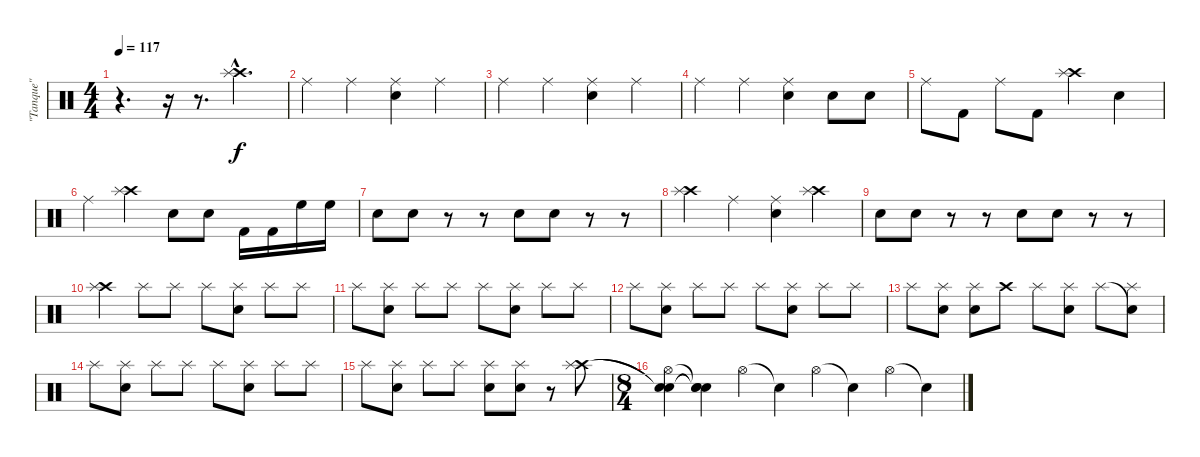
\track ("\"Tanque\"" "\"Tanque\"") {instrument percussion}
\staff {score}
\articulation defaults
\ts (4 4)
\tempo 117
\clef neutral
\ks c
r.4{d dy f} r.16 r.8{d} ("Crash high (hit)"{hac} "Splash (hit)"{hac}).4{d} |
"Ride (middle)".4 "Ride (middle)".4 ("Ride (middle)" "Snare (hit) 2").4 "Ride (middle)".4 |
"Ride (middle)".4 "Ride (middle)".4 ("Ride (middle)" "Snare (hit) 2").4 "Ride (middle)".4 |
"Ride (middle)".4 "Ride (middle)".4 ("Ride (middle)" "Snare (hit) 2").4 "Snare (hit) 2".8 "Snare (hit) 2".8 |
"Ride (middle)".8 "Kick (hit) 2".8 "Ride (middle)".8 "Kick (hit) 2".8 ("Crash high (hit)" "Splash (hit)").4 "Snare (hit) 2".4 |
"Ride (middle)".4 ("Crash high (hit)" "Splash (hit)").4 "Snare (hit) 2".8 "Snare (hit) 2".8 "Kick (hit) 2".16 "Kick (hit) 2".16 "High Floor Tom (hit)".16 "High Floor Tom (hit)".16 |
"Snare (hit) 2".8 "Snare (hit) 2".8 r.8 r.8 "Snare (hit) 2".8 "Snare (hit) 2".8 r.8 r.8 |
("Crash high (hit)" "Splash (hit)").4 "Ride (middle)".4 ("Ride (middle)" "Snare (hit) 2").4 ("Crash high (hit)" "Splash (hit)").4 |
"Snare (hit) 2".8 "Snare (hit) 2".8 r.8 r.8 "Snare (hit) 2".8 "Snare (hit) 2".8 r.8 r.8 |
("Crash high (hit)" "Splash (hit)").4 "Splash (hit)".8 "Splash (hit)".8 "Splash (hit)".8 ("Splash (hit)" "Snare (hit) 2").8 "Splash (hit)".8 "Splash (hit)".8 |
"Splash (hit)".8 ("Splash (hit)" "Snare (hit) 2").8 "Splash (hit)".8 "Splash (hit)".8 "Splash (hit)".8 ("Splash (hit)" "Snare (hit) 2").8 "Splash (hit)".8 "Splash (hit)".8 |
"Splash (hit)".8 ("Splash (hit)" "Snare (hit) 2").8 "Splash (hit)".8 "Splash (hit)".8 "Splash (hit)".8 ("Splash (hit)" "Snare (hit) 2").8 "Splash (hit)".8 "Splash (hit)".8 |
"Splash (hit)".8 ("Splash (hit)" "Snare (hit) 2").8 ("Splash (hit)" "Snare (hit) 2").8 "Crash high (hit)".8 "Splash (hit)".8 ("Splash (hit)" "Snare (hit) 2").8 "Splash (hit)".8 ("Snare (hit)"{t} "Splash (hit)").8 |
"Splash (hit)".8 ("Splash (hit)" "Snare (hit) 2").8 "Splash (hit)".8 "Splash (hit)".8 "Splash (hit)".8 ("Splash (hit)" "Snare (hit) 2").8 "Splash (hit)".8 "Splash (hit)".8 |
"Splash (hit)".8 ("Splash (hit)" "Snare (hit) 2").8 "Splash (hit)".8 "Splash (hit)".8 ("Splash (hit)" "Snare (hit) 2").8 ("Splash (hit)" "Snare (hit) 2").8 r.8 ("Crash high (hit)" "Splash (hit)").8 |
\ts (8 4)
("Snare (hit)"{t} "Snare (hit)"{t} "Hi-Hat (open)").4 ("Snare (hit)"{t} "Snare (hit)"{t} "Snare (hit)"{t}).4 "Hi-Hat (open)".4 "Snare (hit)"{t}.4 "Hi-Hat (open)".4 "Snare (hit)"{t}.4 "Hi-Hat (open)".4 "Snare (hit)"{t}.4
